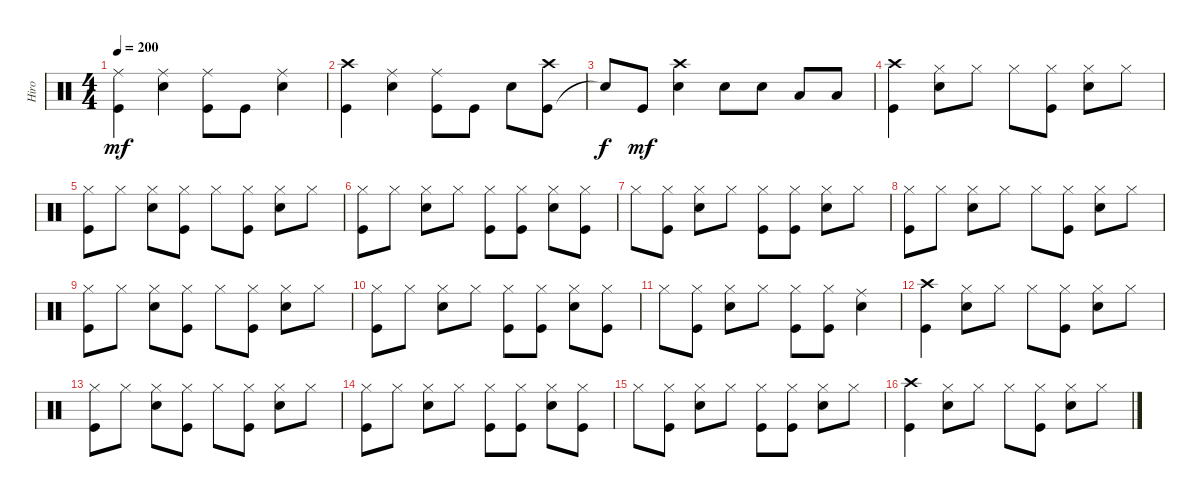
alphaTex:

\track ("Hiro" "Hiro") {instrument percussion}
\staff {score}
\articulation defaults
\ts (4 4)
\tempo 200
\clef neutral
\ks c
("Kick (hit)" "Ride (middle)").4{dy mf} ("Electric Snare (hit)" "Ride (middle)").4 ("Kick (hit)" "Ride (middle)").8 "Kick (hit)".8 ("Electric Snare (hit)" "Ride (middle)").4 |
("Kick (hit)" "Crash high (hit)").4 ("Electric Snare (hit)" "Ride (middle)").4 ("Kick (hit)" "Ride (middle)").8 "Kick (hit)".8 "Electric Snare (hit)".8 ("Kick (hit)" "Crash high (hit)").8 |
"Snare (hit)"{t}.8{dy f} "Kick (hit)".8{dy mf} ("Electric Snare (hit)" "Crash high (hit)").4 "Electric Snare (hit)".8 "Electric Snare (hit)".8 "Low Tom (hit)".8 "Low Tom (hit)".8 |
("Kick (hit)" "Crash high (hit)").4 ("Hi-Hat (closed)" "Electric Snare (hit)").8 "Hi-Hat (closed)".8 "Hi-Hat (closed)".8 ("Hi-Hat (closed)" "Kick (hit)").8 ("Hi-Hat (closed)" "Electric Snare (hit)").8 "Hi-Hat (closed)".8 |
("Hi-Hat (closed)" "Kick (hit)").8 "Hi-Hat (closed)".8 ("Hi-Hat (closed)" "Electric Snare (hit)").8 ("Hi-Hat (closed)" "Kick (hit)").8 "Hi-Hat (closed)".8 ("Hi-Hat (closed)" "Kick (hit)").8 ("Hi-Hat (closed)" "Electric Snare (hit)").8 "Hi-Hat (closed)".8 |
("Hi-Hat (closed)" "Kick (hit)").8 "Hi-Hat (closed)".8 ("Hi-Hat (closed)" "Electric Snare (hit)").8 "Hi-Hat (closed)".8 ("Hi-Hat (closed)" "Kick (hit)").8 ("Hi-Hat (closed)" "Kick (hit)").8 ("Hi-Hat (closed)" "Electric Snare (hit)").8 ("Hi-Hat (closed)" "Kick (hit)").8 |
"Hi-Hat (closed)".8 ("Hi-Hat (closed)" "Kick (hit)").8 ("Hi-Hat (closed)" "Electric Snare (hit)").8 "Hi-Hat (closed)".8 ("Hi-Hat (closed)" "Kick (hit)").8 ("Hi-Hat (closed)" "Kick (hit)").8 ("Hi-Hat (closed)" "Electric Snare (hit)").8 "Hi-Hat (closed)".8 |
("Hi-Hat (closed)" "Kick (hit)").8 "Hi-Hat (closed)".8 ("Electric Snare (hit)" "Hi-Hat (closed)").8 "Hi-Hat (closed)".8 "Hi-Hat (closed)".8 ("Kick (hit)" "Hi-Hat (closed)").8 ("Electric Snare (hit)" "Hi-Hat (closed)").8 "Hi-Hat (closed)".8 |
("Kick (hit)" "Hi-Hat (closed)").8 "Hi-Hat (closed)".8 ("Electric Snare (hit)" "Hi-Hat (closed)").8 ("Kick (hit)" "Hi-Hat (closed)").8 "Hi-Hat (closed)".8 ("Kick (hit)" "Hi-Hat (closed)").8 ("Electric Snare (hit)" "Hi-Hat (closed)").8 "Hi-Hat (closed)".8 |
("Kick (hit)" "Hi-Hat (closed)").8 "Hi-Hat (closed)".8 ("Electric Snare (hit)" "Hi-Hat (closed)").8 "Hi-Hat (closed)".8 ("Kick (hit)" "Hi-Hat (closed)").8 ("Kick (hit)" "Hi-Hat (closed)").8 ("Electric Snare (hit)" "Hi-Hat (closed)").8 ("Kick (hit)" "Hi-Hat (closed)").8 |
"Hi-Hat (closed)".8 ("Kick (hit)" "Hi-Hat (closed)").8 ("Electric Snare (hit)" "Hi-Hat (closed)").8 "Hi-Hat (closed)".8 ("Kick (hit)" "Hi-Hat (closed)").8 ("Kick (hit)" "Hi-Hat (closed)").8 ("Ride (middle)" "Electric Snare (hit)").4 |
("Crash high (hit)" "Kick (hit)").4 ("Electric Snare (hit)" "Hi-Hat (closed)").8 "Hi-Hat (closed)".8 "Hi-Hat (closed)".8 ("Kick (hit)" "Hi-Hat (closed)").8 ("Electric Snare (hit)" "Hi-Hat (closed)").8 "Hi-Hat (closed)".8 |
("Kick (hit)" "Hi-Hat (closed)").8 "Hi-Hat (closed)".8 ("Electric Snare (hit)" "Hi-Hat (closed)").8 ("Kick (hit)" "Hi-Hat (closed)").8 "Hi-Hat (closed)".8 ("Kick (hit)" "Hi-Hat (closed)").8 ("Electric Snare (hit)" "Hi-Hat (closed)").8 "Hi-Hat (closed)".8 |
("Kick (hit)" "Hi-Hat (closed)").8 "Hi-Hat (closed)".8 ("Electric Snare (hit)" "Hi-Hat (closed)").8 "Hi-Hat (closed)".8 ("Kick (hit)" "Hi-Hat (closed)").8 ("Kick (hit)" "Hi-Hat (closed)").8 ("Electric Snare (hit)" "Hi-Hat (closed)").8 ("Kick (hit)" "Hi-Hat (closed)").8 |
"Hi-Hat (closed)".8 ("Kick (hit)" "Hi-Hat (closed)").8 ("Electric Snare (hit)" "Hi-Hat (closed)").8 "Hi-Hat (closed)".8 ("Kick (hit)" "Hi-Hat (closed)").8 ("Kick (hit)" "Hi-Hat (closed)").8 ("Electric Snare (hit)" "Hi-Hat (closed)").8 "Hi-Hat (closed)".8 |
("Kick (hit)" "Crash high (hit)").4 ("Hi-Hat (closed)" "Electric Snare (hit)").8 "Hi-Hat (closed)".8 "Hi-Hat (closed)".8 ("Hi-Hat (closed)" "Kick (hit)").8 ("Hi-Hat (closed)" "Electric Snare (hit)").8 "Hi-Hat (closed)".8
